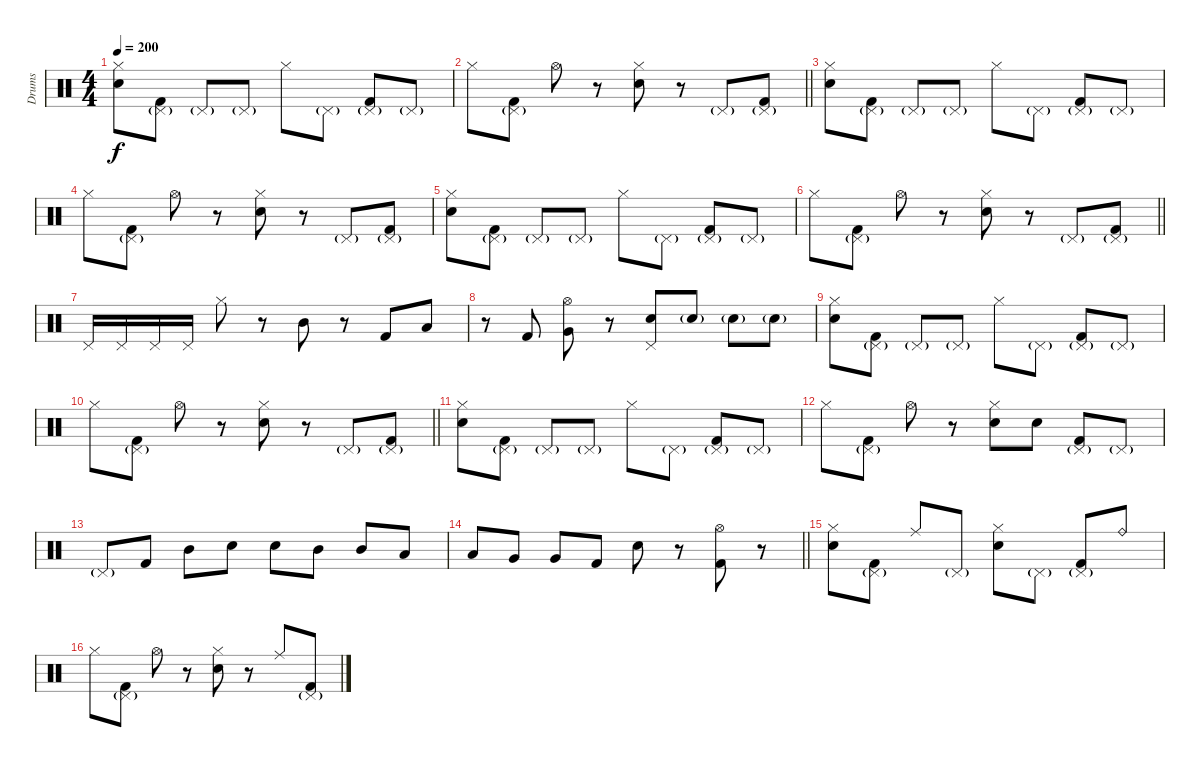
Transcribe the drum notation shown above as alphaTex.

\track ("Drums" "Drums") {instrument percussion}
\staff {score}
\articulation defaults
\ts (4 4)
\tempo 200
\clef neutral
\ks c
("Hi-Hat (closed)" "Electric Snare (hit)").8{dy f} ("Pedal Hi-Hat (hit)"{g} "Kick (hit) 2").8 "Pedal Hi-Hat (hit)"{g}.8 "Pedal Hi-Hat (hit)"{g}.8 "Hi-Hat (closed)".8 "Pedal Hi-Hat (hit)"{g}.8 ("Pedal Hi-Hat (hit)"{g} "Kick (hit) 2").8 "Pedal Hi-Hat (hit)"{g}.8 |
\barLineRight lightlight "Hi-Hat (closed)".8
("Pedal Hi-Hat (hit)"{g} "Kick (hit) 2").8 "Hi-Hat (open)".8 r.8 ("Hi-Hat (closed)" "Electric Snare (hit)").8 r.8 "Pedal Hi-Hat (hit)"{g}.8 ("Pedal Hi-Hat (hit)"{g} "Kick (hit) 2").8 |
("Hi-Hat (closed)" "Electric Snare (hit)").8 ("Pedal Hi-Hat (hit)"{g} "Kick (hit) 2").8 "Pedal Hi-Hat (hit)"{g}.8 "Pedal Hi-Hat (hit)"{g}.8 "Hi-Hat (closed)".8 "Pedal Hi-Hat (hit)"{g}.8 ("Pedal Hi-Hat (hit)"{g} "Kick (hit) 2").8 "Pedal Hi-Hat (hit)"{g}.8 |
"Hi-Hat (closed)".8 ("Pedal Hi-Hat (hit)"{g} "Kick (hit) 2").8 "Hi-Hat (open)".8 r.8 ("Hi-Hat (closed)" "Electric Snare (hit)").8 r.8 "Pedal Hi-Hat (hit)"{g}.8 ("Pedal Hi-Hat (hit)"{g} "Kick (hit) 2").8 |
("Hi-Hat (closed)" "Electric Snare (hit)").8 ("Pedal Hi-Hat (hit)"{g} "Kick (hit) 2").8 "Pedal Hi-Hat (hit)"{g}.8 "Pedal Hi-Hat (hit)"{g}.8 "Hi-Hat (closed)".8 "Pedal Hi-Hat (hit)"{g}.8 ("Pedal Hi-Hat (hit)"{g} "Kick (hit) 2").8 "Pedal Hi-Hat (hit)"{g}.8 |
\barLineRight lightlight "Hi-Hat (closed)".8
("Pedal Hi-Hat (hit)"{g} "Kick (hit) 2").8 "Hi-Hat (open)".8 r.8 ("Hi-Hat (closed)" "Electric Snare (hit)").8 r.8 "Pedal Hi-Hat (hit)"{g}.8 ("Pedal Hi-Hat (hit)"{g} "Kick (hit) 2").8 |
"Pedal Hi-Hat (hit)".16 "Pedal Hi-Hat (hit)".16 "Pedal Hi-Hat (hit)".16 "Pedal Hi-Hat (hit)".16 "Hi-Hat (closed)".8 r.8 "Mid Tom (hit)".8 r.8 "Kick (hit) 2".8 "Low Tom (hit)".8 |
r.8 "Kick (hit) 2".8 ("Hi-Hat (open)" "Very Low Tom (hit)").8 r.8 ("Pedal Hi-Hat (hit)" "Electric Snare (hit)").8 "Electric Snare (hit)"{g}.8 "Electric Snare (hit)"{g}.8 "Electric Snare (hit)"{g}.8 |
("Hi-Hat (closed)" "Electric Snare (hit)").8 ("Pedal Hi-Hat (hit)"{g} "Kick (hit) 2").8 "Pedal Hi-Hat (hit)"{g}.8 "Pedal Hi-Hat (hit)"{g}.8 "Hi-Hat (closed)".8 "Pedal Hi-Hat (hit)"{g}.8 ("Pedal Hi-Hat (hit)"{g} "Kick (hit) 2").8 "Pedal Hi-Hat (hit)"{g}.8 |
\barLineRight lightlight "Hi-Hat (closed)".8
("Pedal Hi-Hat (hit)"{g} "Kick (hit) 2").8 "Hi-Hat (open)".8 r.8 ("Hi-Hat (closed)" "Electric Snare (hit)").8 r.8 "Pedal Hi-Hat (hit)"{g}.8 ("Pedal Hi-Hat (hit)"{g} "Kick (hit) 2").8 |
("Hi-Hat (closed)" "Electric Snare (hit)").8 ("Pedal Hi-Hat (hit)"{g} "Kick (hit) 2").8 "Pedal Hi-Hat (hit)"{g}.8 "Pedal Hi-Hat (hit)"{g}.8 "Hi-Hat (closed)".8 "Pedal Hi-Hat (hit)"{g}.8 ("Pedal Hi-Hat (hit)"{g} "Kick (hit) 2").8 "Pedal Hi-Hat (hit)"{g}.8 |
"Hi-Hat (closed)".8 ("Pedal Hi-Hat (hit)"{g} "Kick (hit) 2").8 "Hi-Hat (open)".8 r.8 ("Hi-Hat (closed)" "Electric Snare (hit)").8 "Electric Snare (hit)".8 ("Pedal Hi-Hat (hit)"{g} "Kick (hit) 2").8 "Pedal Hi-Hat (hit)"{g}.8 |
"Pedal Hi-Hat (hit)"{g}.8 "Kick (hit) 2".8 "Mid Tom (hit)".8 "Electric Snare (hit)".8 "Electric Snare (hit)".8 "Mid Tom (hit)".8 "Mid Tom (hit)".8 "Low Tom (hit)".8 |
\barLineRight lightlight "Low Tom (hit)".8 "Very Low Tom (hit)".8 "Very Low Tom (hit)".8 "Kick (hit) 2".8 "Electric Snare (hit)".8
r.8 ("Hi-Hat (open)" "Kick (hit) 2").8 r.8 |
("Hi-Hat (closed)" "Electric Snare (hit)").8 ("Pedal Hi-Hat (hit)"{g} "Kick (hit) 2").8 "Ride (middle)".8 "Pedal Hi-Hat (hit)"{g}.8 ("Hi-Hat (closed)" "Electric Snare (hit)").8 "Pedal Hi-Hat (hit)"{g}.8 ("Pedal Hi-Hat (hit)"{g} "Kick (hit) 2").8 "Ride (bell)".8 |
"Hi-Hat (closed)".8 ("Pedal Hi-Hat (hit)"{g} "Kick (hit) 2").8 "Hi-Hat (open)".8 r.8 ("Hi-Hat (closed)" "Electric Snare (hit)").8 r.8 "Ride (middle)".8 ("Pedal Hi-Hat (hit)"{g} "Kick (hit) 2").8
